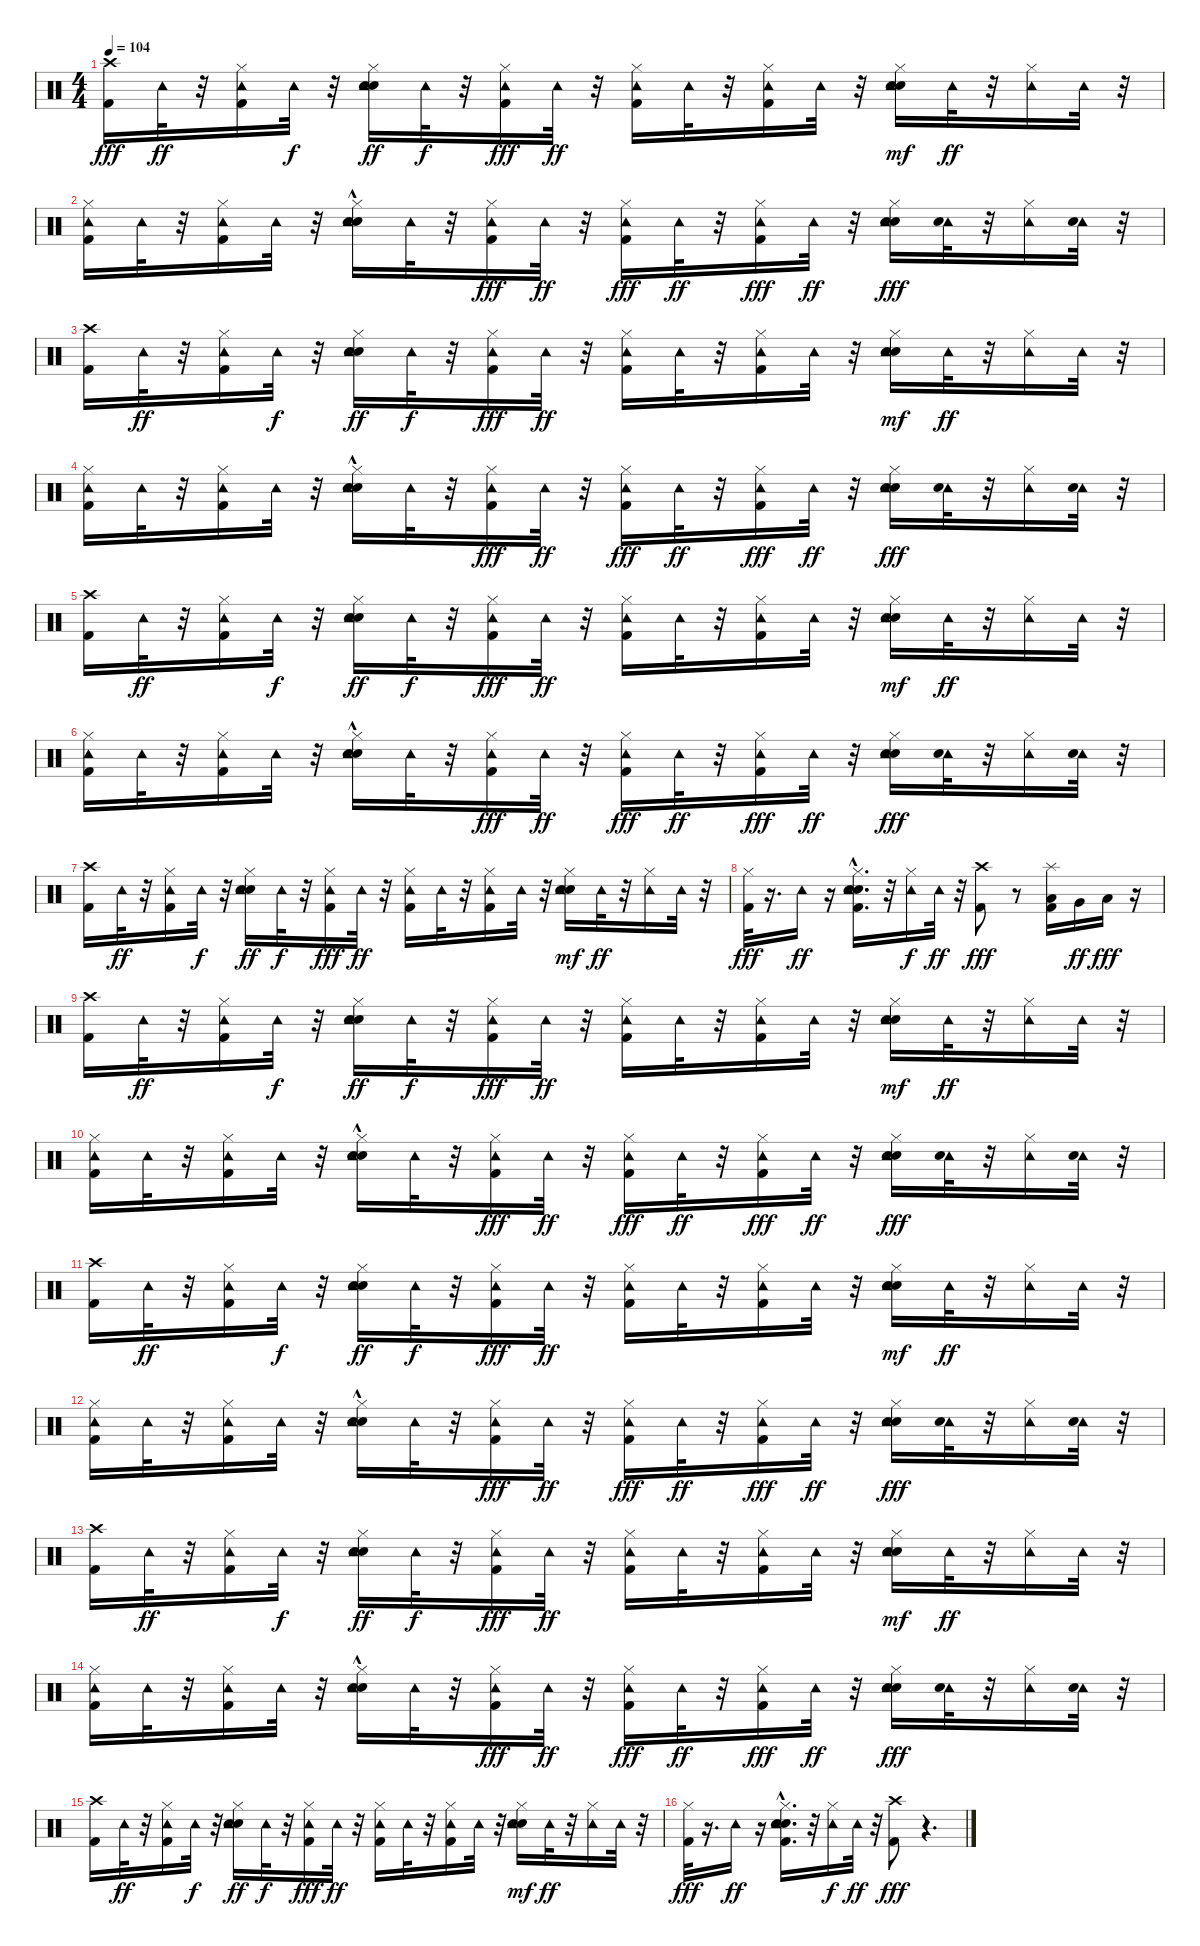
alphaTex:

\track "" {instrument percussion}
\staff {score}
\articulation defaults
\ts (4 4)
\tempo 104
\clef neutral
\ks c
("Kick (hit) 2" "Crash high (hit)").16{dy fff} "Tambourine (hit)".32{dy ff} r.32 ("Hi-Hat (closed)" "Kick (hit) 2" "Tambourine (hit)").16 "Tambourine (hit)".32{dy f} r.32 ("Hi-Hat (closed)" "Hand Clap (hit)" "Snare (hit) 2" "Tambourine (hit)").16{dy ff} "Tambourine (hit)".32{dy f} r.32 ("Hi-Hat (closed)" "Kick (hit) 2" "Tambourine (hit)").16{dy fff} "Tambourine (hit)".32{dy ff} r.32 ("Hi-Hat (closed)" "Kick (hit) 2" "Tambourine (hit)").16 "Tambourine (hit)".32 r.32 ("Hi-Hat (closed)" "Kick (hit) 2" "Tambourine (hit)").16 "Tambourine (hit)".32 r.32 ("Hi-Hat (closed)" "Hand Clap (hit)" "Snare (hit) 2" "Tambourine (hit)").16{dy mf} "Tambourine (hit)".32{dy ff} r.32 ("Hi-Hat (closed)" "Tambourine (hit)").16 "Tambourine (hit)".32 r.32 |
("Hi-Hat (closed)" "Kick (hit) 2" "Tambourine (hit)").16 "Tambourine (hit)".32 r.32 ("Hi-Hat (closed)" "Kick (hit) 2" "Tambourine (hit)").16 "Tambourine (hit)".32 r.32 ("Hi-Hat (closed)" "Hand Clap (hit)" "Snare (hit) 2"{hac} "Tambourine (hit)").16 "Tambourine (hit)".32 r.32 ("Hi-Hat (closed)" "Kick (hit) 2" "Tambourine (hit)").16{dy fff} "Tambourine (hit)".32{dy ff} r.32 ("Hi-Hat (closed)" "Kick (hit) 2" "Tambourine (hit)").16{dy fff} "Tambourine (hit)".32{dy ff} r.32 ("Hi-Hat (closed)" "Kick (hit) 2" "Tambourine (hit)").16{dy fff} "Tambourine (hit)".32{dy ff} r.32 ("Hand Clap (hit)" "Hi-Hat (closed)" "Snare (hit) 2" "Tambourine (hit)").16{dy fff} ("Tambourine (hit)" "Electric Snare (hit)").32 r.32 ("Hi-Hat (closed)" "Tambourine (hit)").16 ("Tambourine (hit)" "Electric Snare (hit)").32 r.32 |
("Kick (hit) 2" "Crash high (hit)").16 "Tambourine (hit)".32{dy ff} r.32 ("Hi-Hat (closed)" "Kick (hit) 2" "Tambourine (hit)").16 "Tambourine (hit)".32{dy f} r.32 ("Hi-Hat (closed)" "Hand Clap (hit)" "Snare (hit) 2" "Tambourine (hit)").16{dy ff} "Tambourine (hit)".32{dy f} r.32 ("Hi-Hat (closed)" "Kick (hit) 2" "Tambourine (hit)").16{dy fff} "Tambourine (hit)".32{dy ff} r.32 ("Hi-Hat (closed)" "Kick (hit) 2" "Tambourine (hit)").16 "Tambourine (hit)".32 r.32 ("Hi-Hat (closed)" "Kick (hit) 2" "Tambourine (hit)").16 "Tambourine (hit)".32 r.32 ("Hi-Hat (closed)" "Hand Clap (hit)" "Snare (hit) 2" "Tambourine (hit)").16{dy mf} "Tambourine (hit)".32{dy ff} r.32 ("Hi-Hat (closed)" "Tambourine (hit)").16 "Tambourine (hit)".32 r.32 |
("Hi-Hat (closed)" "Kick (hit) 2" "Tambourine (hit)").16 "Tambourine (hit)".32 r.32 ("Hi-Hat (closed)" "Kick (hit) 2" "Tambourine (hit)").16 "Tambourine (hit)".32 r.32 ("Hi-Hat (closed)" "Hand Clap (hit)" "Snare (hit) 2"{hac} "Tambourine (hit)").16 "Tambourine (hit)".32 r.32 ("Hi-Hat (closed)" "Kick (hit) 2" "Tambourine (hit)").16{dy fff} "Tambourine (hit)".32{dy ff} r.32 ("Hi-Hat (closed)" "Kick (hit) 2" "Tambourine (hit)").16{dy fff} "Tambourine (hit)".32{dy ff} r.32 ("Hi-Hat (closed)" "Kick (hit) 2" "Tambourine (hit)").16{dy fff} "Tambourine (hit)".32{dy ff} r.32 ("Hand Clap (hit)" "Hi-Hat (closed)" "Snare (hit) 2" "Tambourine (hit)").16{dy fff} ("Tambourine (hit)" "Electric Snare (hit)").32 r.32 ("Hi-Hat (closed)" "Tambourine (hit)").16 ("Tambourine (hit)" "Electric Snare (hit)").32 r.32 |
("Kick (hit) 2" "Crash high (hit)").16 "Tambourine (hit)".32{dy ff} r.32 ("Hi-Hat (closed)" "Kick (hit) 2" "Tambourine (hit)").16 "Tambourine (hit)".32{dy f} r.32 ("Hi-Hat (closed)" "Hand Clap (hit)" "Snare (hit) 2" "Tambourine (hit)").16{dy ff} "Tambourine (hit)".32{dy f} r.32 ("Hi-Hat (closed)" "Kick (hit) 2" "Tambourine (hit)").16{dy fff} "Tambourine (hit)".32{dy ff} r.32 ("Hi-Hat (closed)" "Kick (hit) 2" "Tambourine (hit)").16 "Tambourine (hit)".32 r.32 ("Hi-Hat (closed)" "Kick (hit) 2" "Tambourine (hit)").16 "Tambourine (hit)".32 r.32 ("Hi-Hat (closed)" "Hand Clap (hit)" "Snare (hit) 2" "Tambourine (hit)").16{dy mf} "Tambourine (hit)".32{dy ff} r.32 ("Hi-Hat (closed)" "Tambourine (hit)").16 "Tambourine (hit)".32 r.32 |
("Hi-Hat (closed)" "Kick (hit) 2" "Tambourine (hit)").16 "Tambourine (hit)".32 r.32 ("Hi-Hat (closed)" "Kick (hit) 2" "Tambourine (hit)").16 "Tambourine (hit)".32 r.32 ("Hi-Hat (closed)" "Hand Clap (hit)" "Snare (hit) 2"{hac} "Tambourine (hit)").16 "Tambourine (hit)".32 r.32 ("Hi-Hat (closed)" "Kick (hit) 2" "Tambourine (hit)").16{dy fff} "Tambourine (hit)".32{dy ff} r.32 ("Hi-Hat (closed)" "Kick (hit) 2" "Tambourine (hit)").16{dy fff} "Tambourine (hit)".32{dy ff} r.32 ("Hi-Hat (closed)" "Kick (hit) 2" "Tambourine (hit)").16{dy fff} "Tambourine (hit)".32{dy ff} r.32 ("Hand Clap (hit)" "Hi-Hat (closed)" "Snare (hit) 2" "Tambourine (hit)").16{dy fff} ("Tambourine (hit)" "Electric Snare (hit)").32 r.32 ("Hi-Hat (closed)" "Tambourine (hit)").16 ("Tambourine (hit)" "Electric Snare (hit)").32 r.32 |
("Kick (hit) 2" "Crash high (hit)").16 "Tambourine (hit)".32{dy ff} r.32 ("Hi-Hat (closed)" "Kick (hit) 2" "Tambourine (hit)").16 "Tambourine (hit)".32{dy f} r.32 ("Hi-Hat (closed)" "Hand Clap (hit)" "Snare (hit) 2" "Tambourine (hit)").16{dy ff} "Tambourine (hit)".32{dy f} r.32 ("Hi-Hat (closed)" "Kick (hit) 2" "Tambourine (hit)").16{dy fff} "Tambourine (hit)".32{dy ff} r.32 ("Hi-Hat (closed)" "Kick (hit) 2" "Tambourine (hit)").16 "Tambourine (hit)".32 r.32 ("Hi-Hat (closed)" "Kick (hit) 2" "Tambourine (hit)").16 "Tambourine (hit)".32 r.32 ("Hi-Hat (closed)" "Hand Clap (hit)" "Snare (hit) 2" "Tambourine (hit)").16{dy mf} "Tambourine (hit)".32{dy ff} r.32 ("Hi-Hat (closed)" "Tambourine (hit)").16 "Tambourine (hit)".32 r.32 |
("Hi-Hat (closed)" "Kick (hit) 2").32{dy fff} r.16{d} "Tambourine (hit)".16{dy ff} r.16 ("Hi-Hat (closed)" "Hand Clap (hit)" "Kick (hit) 2" "Snare (hit) 2"{hac} "Tambourine (hit)").16{d} r.32 ("Hi-Hat (closed)" "Tambourine (hit)").16{dy f} "Tambourine (hit)".32{dy ff} r.32 ("Kick (hit) 2" "Crash high (hit)").8{dy fff} r.8 ("Low Tom (hit)" "Splash (hit)" "Kick (hit) 2").16 "Very Low Tom (hit)".16{dy ff} "Low Floor Tom (hit)".16{dy fff} r.16 |
("Kick (hit) 2" "Crash high (hit)").16 "Tambourine (hit)".32{dy ff} r.32 ("Hi-Hat (closed)" "Kick (hit) 2" "Tambourine (hit)").16 "Tambourine (hit)".32{dy f} r.32 ("Hi-Hat (closed)" "Hand Clap (hit)" "Snare (hit) 2" "Tambourine (hit)").16{dy ff} "Tambourine (hit)".32{dy f} r.32 ("Hi-Hat (closed)" "Kick (hit) 2" "Tambourine (hit)").16{dy fff} "Tambourine (hit)".32{dy ff} r.32 ("Hi-Hat (closed)" "Kick (hit) 2" "Tambourine (hit)").16 "Tambourine (hit)".32 r.32 ("Hi-Hat (closed)" "Kick (hit) 2" "Tambourine (hit)").16 "Tambourine (hit)".32 r.32 ("Hi-Hat (closed)" "Hand Clap (hit)" "Snare (hit) 2" "Tambourine (hit)").16{dy mf} "Tambourine (hit)".32{dy ff} r.32 ("Hi-Hat (closed)" "Tambourine (hit)").16 "Tambourine (hit)".32 r.32 |
("Hi-Hat (closed)" "Kick (hit) 2" "Tambourine (hit)").16 "Tambourine (hit)".32 r.32 ("Hi-Hat (closed)" "Kick (hit) 2" "Tambourine (hit)").16 "Tambourine (hit)".32 r.32 ("Hi-Hat (closed)" "Hand Clap (hit)" "Snare (hit) 2"{hac} "Tambourine (hit)").16 "Tambourine (hit)".32 r.32 ("Hi-Hat (closed)" "Kick (hit) 2" "Tambourine (hit)").16{dy fff} "Tambourine (hit)".32{dy ff} r.32 ("Hi-Hat (closed)" "Kick (hit) 2" "Tambourine (hit)").16{dy fff} "Tambourine (hit)".32{dy ff} r.32 ("Hi-Hat (closed)" "Kick (hit) 2" "Tambourine (hit)").16{dy fff} "Tambourine (hit)".32{dy ff} r.32 ("Hand Clap (hit)" "Hi-Hat (closed)" "Snare (hit) 2" "Tambourine (hit)").16{dy fff} ("Tambourine (hit)" "Electric Snare (hit)").32 r.32 ("Hi-Hat (closed)" "Tambourine (hit)").16 ("Tambourine (hit)" "Electric Snare (hit)").32 r.32 |
("Kick (hit) 2" "Crash high (hit)").16 "Tambourine (hit)".32{dy ff} r.32 ("Hi-Hat (closed)" "Kick (hit) 2" "Tambourine (hit)").16 "Tambourine (hit)".32{dy f} r.32 ("Hi-Hat (closed)" "Hand Clap (hit)" "Snare (hit) 2" "Tambourine (hit)").16{dy ff} "Tambourine (hit)".32{dy f} r.32 ("Hi-Hat (closed)" "Kick (hit) 2" "Tambourine (hit)").16{dy fff} "Tambourine (hit)".32{dy ff} r.32 ("Hi-Hat (closed)" "Kick (hit) 2" "Tambourine (hit)").16 "Tambourine (hit)".32 r.32 ("Hi-Hat (closed)" "Kick (hit) 2" "Tambourine (hit)").16 "Tambourine (hit)".32 r.32 ("Hi-Hat (closed)" "Hand Clap (hit)" "Snare (hit) 2" "Tambourine (hit)").16{dy mf} "Tambourine (hit)".32{dy ff} r.32 ("Hi-Hat (closed)" "Tambourine (hit)").16 "Tambourine (hit)".32 r.32 |
("Hi-Hat (closed)" "Kick (hit) 2" "Tambourine (hit)").16 "Tambourine (hit)".32 r.32 ("Hi-Hat (closed)" "Kick (hit) 2" "Tambourine (hit)").16 "Tambourine (hit)".32 r.32 ("Hi-Hat (closed)" "Hand Clap (hit)" "Snare (hit) 2"{hac} "Tambourine (hit)").16 "Tambourine (hit)".32 r.32 ("Hi-Hat (closed)" "Kick (hit) 2" "Tambourine (hit)").16{dy fff} "Tambourine (hit)".32{dy ff} r.32 ("Hi-Hat (closed)" "Kick (hit) 2" "Tambourine (hit)").16{dy fff} "Tambourine (hit)".32{dy ff} r.32 ("Hi-Hat (closed)" "Kick (hit) 2" "Tambourine (hit)").16{dy fff} "Tambourine (hit)".32{dy ff} r.32 ("Hand Clap (hit)" "Hi-Hat (closed)" "Snare (hit) 2" "Tambourine (hit)").16{dy fff} ("Tambourine (hit)" "Electric Snare (hit)").32 r.32 ("Hi-Hat (closed)" "Tambourine (hit)").16 ("Tambourine (hit)" "Electric Snare (hit)").32 r.32 |
("Kick (hit) 2" "Crash high (hit)").16 "Tambourine (hit)".32{dy ff} r.32 ("Hi-Hat (closed)" "Kick (hit) 2" "Tambourine (hit)").16 "Tambourine (hit)".32{dy f} r.32 ("Hi-Hat (closed)" "Hand Clap (hit)" "Snare (hit) 2" "Tambourine (hit)").16{dy ff} "Tambourine (hit)".32{dy f} r.32 ("Hi-Hat (closed)" "Kick (hit) 2" "Tambourine (hit)").16{dy fff} "Tambourine (hit)".32{dy ff} r.32 ("Hi-Hat (closed)" "Kick (hit) 2" "Tambourine (hit)").16 "Tambourine (hit)".32 r.32 ("Hi-Hat (closed)" "Kick (hit) 2" "Tambourine (hit)").16 "Tambourine (hit)".32 r.32 ("Hi-Hat (closed)" "Hand Clap (hit)" "Snare (hit) 2" "Tambourine (hit)").16{dy mf} "Tambourine (hit)".32{dy ff} r.32 ("Hi-Hat (closed)" "Tambourine (hit)").16 "Tambourine (hit)".32 r.32 |
("Hi-Hat (closed)" "Kick (hit) 2" "Tambourine (hit)").16 "Tambourine (hit)".32 r.32 ("Hi-Hat (closed)" "Kick (hit) 2" "Tambourine (hit)").16 "Tambourine (hit)".32 r.32 ("Hi-Hat (closed)" "Hand Clap (hit)" "Snare (hit) 2"{hac} "Tambourine (hit)").16 "Tambourine (hit)".32 r.32 ("Hi-Hat (closed)" "Kick (hit) 2" "Tambourine (hit)").16{dy fff} "Tambourine (hit)".32{dy ff} r.32 ("Hi-Hat (closed)" "Kick (hit) 2" "Tambourine (hit)").16{dy fff} "Tambourine (hit)".32{dy ff} r.32 ("Hi-Hat (closed)" "Kick (hit) 2" "Tambourine (hit)").16{dy fff} "Tambourine (hit)".32{dy ff} r.32 ("Hand Clap (hit)" "Hi-Hat (closed)" "Snare (hit) 2" "Tambourine (hit)").16{dy fff} ("Tambourine (hit)" "Electric Snare (hit)").32 r.32 ("Hi-Hat (closed)" "Tambourine (hit)").16 ("Tambourine (hit)" "Electric Snare (hit)").32 r.32 |
("Kick (hit) 2" "Crash high (hit)").16 "Tambourine (hit)".32{dy ff} r.32 ("Hi-Hat (closed)" "Kick (hit) 2" "Tambourine (hit)").16 "Tambourine (hit)".32{dy f} r.32 ("Hi-Hat (closed)" "Hand Clap (hit)" "Snare (hit) 2" "Tambourine (hit)").16{dy ff} "Tambourine (hit)".32{dy f} r.32 ("Hi-Hat (closed)" "Kick (hit) 2" "Tambourine (hit)").16{dy fff} "Tambourine (hit)".32{dy ff} r.32 ("Hi-Hat (closed)" "Kick (hit) 2" "Tambourine (hit)").16 "Tambourine (hit)".32 r.32 ("Hi-Hat (closed)" "Kick (hit) 2" "Tambourine (hit)").16 "Tambourine (hit)".32 r.32 ("Hi-Hat (closed)" "Hand Clap (hit)" "Snare (hit) 2" "Tambourine (hit)").16{dy mf} "Tambourine (hit)".32{dy ff} r.32 ("Hi-Hat (closed)" "Tambourine (hit)").16 "Tambourine (hit)".32 r.32 |
("Hi-Hat (closed)" "Kick (hit) 2").32{dy fff} r.16{d} "Tambourine (hit)".16{dy ff} r.16 ("Hi-Hat (closed)" "Hand Clap (hit)" "Kick (hit) 2" "Snare (hit) 2"{hac} "Tambourine (hit)").16{d} r.32 ("Hi-Hat (closed)" "Tambourine (hit)").16{dy f} "Tambourine (hit)".32{dy ff} r.32 ("Kick (hit) 2" "Crash high (hit)").8{dy fff} r.4{d}
